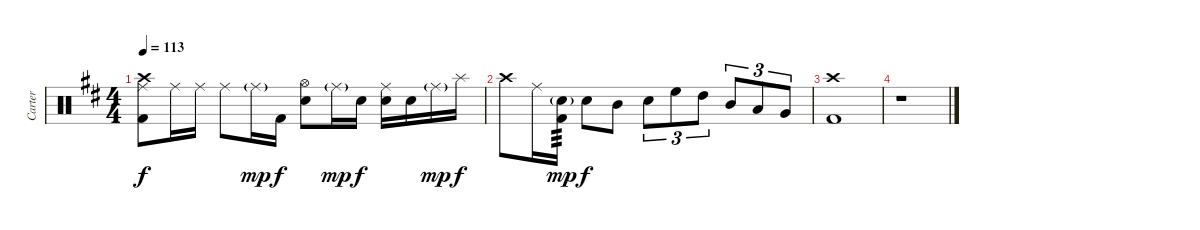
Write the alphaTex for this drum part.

\track ("Carter" "Carter") {instrument percussion}
\staff {score}
\articulation defaults
\ts (4 4)
\tempo 113
\clef neutral
\ks d
("Crash high (hit)" "Ride (middle)" "Kick (hit) 2").8{dy f} "Ride (middle)".16 "Ride (middle)".16 "Ride (middle)".8 "Ride (middle)"{g}.16{dy mp} "Kick (hit) 2".16{dy f} ("Hi-Hat (open)" "Electric Snare (hit)").8 "Ride (middle)"{g}.16{dy mp} "Electric Snare (hit)".16{dy f} ("Ride (middle)" "Electric Snare (hit)").16 "Electric Snare (hit)".16 "Ride (middle)"{g}.16{dy mp} "Splash (hit)".16{dy f} |
"Crash high (hit)".8 "Ride (middle)".16 ("Electric Snare (hit)"{g} "Kick (hit) 2").16{tp 3 dy mp} "Electric Snare (hit)".8{dy f} "Mid Tom (hit)".8 "Electric Snare (hit)".8{tu (3 2)} "High Floor Tom (hit)".8{tu (3 2)} "High Tom (hit)".8{tu (3 2)} "Mid Tom (hit)".8{tu (3 2)} "Low Tom (hit)".8{tu (3 2)} "Very Low Tom (hit)".8{tu (3 2)} |
("Crash high (hit)" "Kick (hit) 2").1 |
r.1
